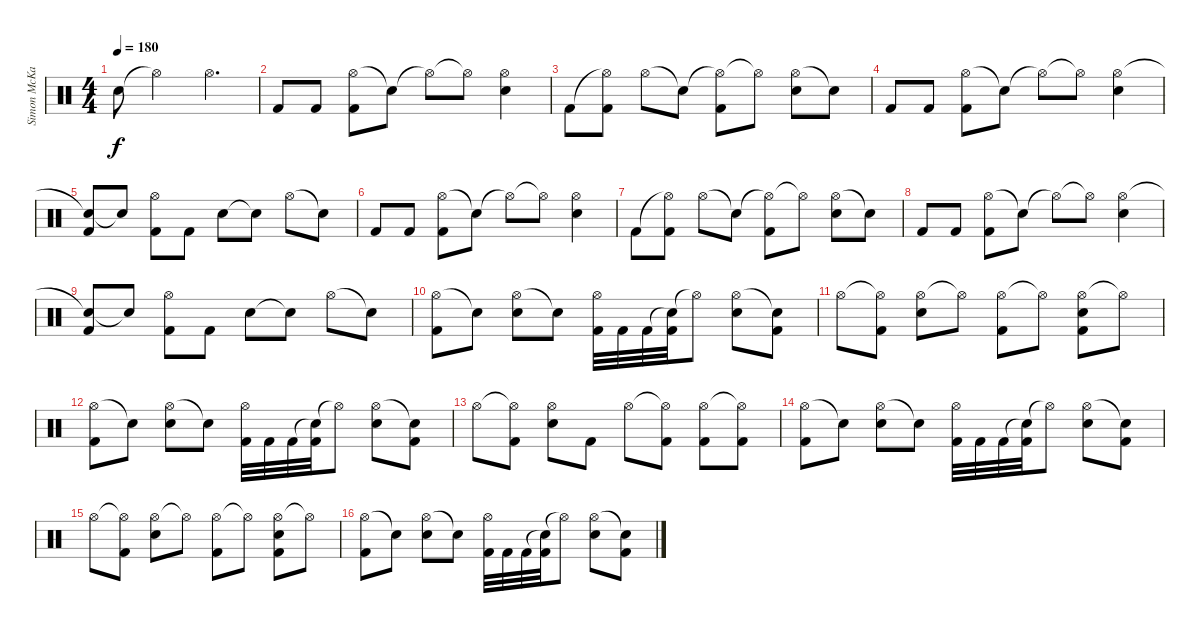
\track ("Simon McKay" "Simon McKa") {instrument percussion}
\staff {score}
\articulation defaults
\ts (4 4)
\tempo 180
\clef neutral
\ks c "Snare (hit)"{t}.8{dy f} "Hi-Hat (open)"{t}.2 "Hi-Hat (open)".4{d}
|
"Kick (hit) 2".8 "Kick (hit) 2".8 ("Hi-Hat (open)" "Kick (hit) 2").8 "Snare (hit)"{t}.8 "Hi-Hat (open)"{t}.8 "Hi-Hat (open)"{t}.8 ("Hi-Hat (open)" "Snare (hit) 2").4 |
"Kick (hit) 2".8 ("Hi-Hat (open)"{t} "Kick (hit) 2").8 "Hi-Hat (open)".8 "Snare (hit)"{t}.8 ("Hi-Hat (open)"{t} "Kick (hit) 2").8 "Hi-Hat (open)"{t}.8 ("Hi-Hat (open)" "Snare (hit) 2").8 "Snare (hit)"{t}.8 |
"Kick (hit) 2".8 "Kick (hit) 2".8 ("Hi-Hat (open)" "Kick (hit) 2").8 "Snare (hit)"{t}.8 "Hi-Hat (open)"{t}.8 "Hi-Hat (open)"{t}.8 ("Hi-Hat (open)" "Snare (hit) 2").4 |
("Snare (hit)"{t} "Kick (hit) 2").8 "Snare (hit)"{t}.8 ("Hi-Hat (open)" "Kick (hit) 2").8 "Kick (hit) 2".8 "Snare (hit) 2".8 "Snare (hit)"{t}.8 "Hi-Hat (open)".8 "Snare (hit)"{t}.8 |
"Kick (hit) 2".8 "Kick (hit) 2".8 ("Hi-Hat (open)" "Kick (hit) 2").8 "Snare (hit)"{t}.8 "Hi-Hat (open)"{t}.8 "Hi-Hat (open)"{t}.8 ("Hi-Hat (open)" "Snare (hit) 2").4 |
"Kick (hit) 2".8 ("Hi-Hat (open)"{t} "Kick (hit) 2").8 "Hi-Hat (open)".8 "Snare (hit)"{t}.8 ("Hi-Hat (open)"{t} "Kick (hit) 2").8 "Hi-Hat (open)"{t}.8 ("Hi-Hat (open)" "Snare (hit) 2").8 "Snare (hit)"{t}.8 |
"Kick (hit) 2".8 "Kick (hit) 2".8 ("Hi-Hat (open)" "Kick (hit) 2").8 "Snare (hit)"{t}.8 "Hi-Hat (open)"{t}.8 "Hi-Hat (open)"{t}.8 ("Hi-Hat (open)" "Snare (hit) 2").4 |
("Snare (hit)"{t} "Kick (hit) 2").8 "Snare (hit)"{t}.8 ("Hi-Hat (open)" "Kick (hit) 2").8 "Kick (hit) 2".8 "Snare (hit) 2".8 "Snare (hit)"{t}.8 "Hi-Hat (open)".8 "Snare (hit)"{t}.8 |
("Hi-Hat (open)" "Kick (hit) 2").8 "Snare (hit) 2"{t}.8 ("Hi-Hat (open)" "Snare (hit) 2").8 "Snare (hit)"{t}.8 ("Hi-Hat (open)" "Kick (hit) 2").32 "Kick (hit) 2".32 "Kick (hit) 2".32 ("Snare (hit)"{t} "Kick (hit) 2").32 "Hi-Hat (open)"{t}.8 ("Hi-Hat (open)" "Snare (hit) 2").8 ("Snare (hit)"{t} "Kick (hit) 2").8 |
"Hi-Hat (open)".8 ("Hi-Hat (open)"{t} "Kick (hit) 2").8 ("Hi-Hat (open)" "Snare (hit) 2").8 "Hi-Hat (open)"{t}.8 ("Hi-Hat (open)" "Kick (hit) 2").8 "Hi-Hat (open)"{t}.8 ("Hi-Hat (open)" "Snare (hit) 2" "Kick (hit) 2").8 "Hi-Hat (open)"{t}.8 |
("Hi-Hat (open)" "Kick (hit) 2").8 "Snare (hit)"{t}.8 ("Hi-Hat (open)" "Snare (hit) 2").8 "Snare (hit)"{t}.8 ("Hi-Hat (open)" "Kick (hit) 2").32 "Kick (hit) 2".32 "Kick (hit) 2".32 ("Snare (hit)"{t} "Kick (hit) 2").32 "Hi-Hat (open)"{t}.8 ("Hi-Hat (open)" "Snare (hit) 2").8 ("Snare (hit)"{t} "Kick (hit) 2").8 |
"Hi-Hat (open)".8 ("Hi-Hat (open)"{t} "Kick (hit) 2").8 ("Hi-Hat (open)" "Snare (hit) 2").8 "Kick (hit) 2".8 "Hi-Hat (open)".8 ("Hi-Hat (open)"{t} "Kick (hit) 2").8 ("Hi-Hat (open)" "Kick (hit) 2").8 ("Hi-Hat (open)"{t} "Kick (hit) 2").8 |
("Hi-Hat (open)" "Kick (hit) 2").8 "Snare (hit) 2"{t}.8 ("Hi-Hat (open)" "Snare (hit) 2").8 "Snare (hit)"{t}.8 ("Hi-Hat (open)" "Kick (hit) 2").32 "Kick (hit) 2".32 "Kick (hit) 2".32 ("Snare (hit)"{t} "Kick (hit) 2").32 "Hi-Hat (open)"{t}.8 ("Hi-Hat (open)" "Snare (hit) 2").8 ("Snare (hit)"{t} "Kick (hit) 2").8 |
"Hi-Hat (open)".8 ("Hi-Hat (open)"{t} "Kick (hit) 2").8 ("Hi-Hat (open)" "Snare (hit) 2").8 "Hi-Hat (open)"{t}.8 ("Hi-Hat (open)" "Kick (hit) 2").8 "Hi-Hat (open)"{t}.8 ("Hi-Hat (open)" "Snare (hit) 2" "Kick (hit) 2").8 "Hi-Hat (open)"{t}.8 |
("Hi-Hat (open)" "Kick (hit) 2").8 "Snare (hit)"{t}.8 ("Hi-Hat (open)" "Snare (hit) 2").8 "Snare (hit)"{t}.8 ("Hi-Hat (open)" "Kick (hit) 2").32 "Kick (hit) 2".32 "Kick (hit) 2".32 ("Snare (hit)"{t} "Kick (hit) 2").32 "Hi-Hat (open)"{t}.8 ("Hi-Hat (open)" "Snare (hit) 2").8 ("Snare (hit)"{t} "Kick (hit) 2").8
